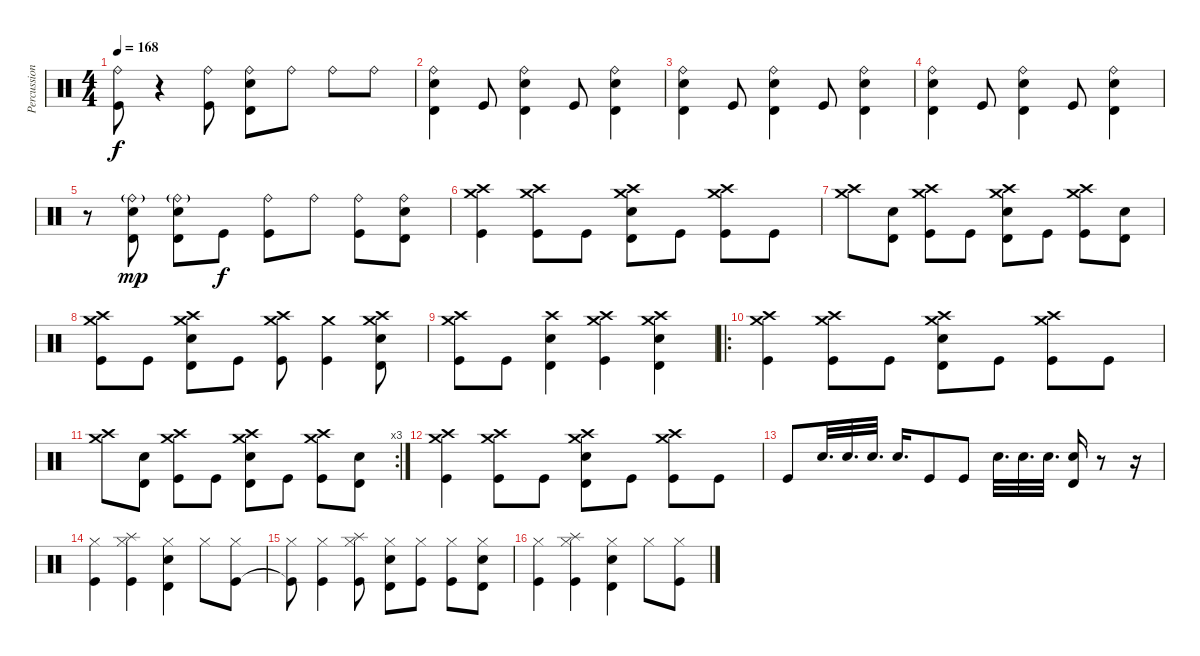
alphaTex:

\track ("Percussion" "Percussion") {instrument percussion}
\staff {score}
\articulation defaults
\ts (4 4)
\tempo 168
\clef neutral
\ks c
("Ride (bell)" "Kick (hit)").8{dy f} r.4 ("Ride (bell)" "Kick (hit)").8 ("Ride (bell)" "Timbale high (hit)" "Electric Snare (hit)").8 "Ride (bell)".8 "Ride (bell)".8 "Ride (bell)".8 |
("Ride (bell)" "Electric Snare (hit)" "Timbale high (hit)").4 "Kick (hit)".8 ("Ride (bell)" "Electric Snare (hit)" "Timbale high (hit)").4 "Kick (hit)".8 ("Ride (bell)" "Electric Snare (hit)" "Timbale high (hit)").4 |
("Ride (bell)" "Electric Snare (hit)" "Timbale high (hit)").4 "Kick (hit)".8 ("Ride (bell)" "Electric Snare (hit)" "Timbale high (hit)").4 "Kick (hit)".8 ("Ride (bell)" "Electric Snare (hit)" "Timbale high (hit)").4 |
("Ride (bell)" "Electric Snare (hit)" "Timbale high (hit)").4 "Kick (hit)".8 ("Ride (bell)" "Electric Snare (hit)" "Timbale high (hit)").4 "Kick (hit)".8 ("Ride (bell)" "Electric Snare (hit)" "Timbale high (hit)").4 |
r.8 ("Timbale high (hit)" "Electric Snare (hit)" "Ride (bell)"{g}).8{dy mp} ("Timbale high (hit)" "Electric Snare (hit)" "Ride (bell)"{g}).8 "Kick (hit)".8{dy f} ("Ride (bell)" "Kick (hit)").8 "Ride (bell)".8 ("Ride (bell)" "Kick (hit)").8 ("Ride (bell)" "Electric Snare (hit)" "Timbale high (hit)").8 |
("Crash high (hit)" "Crash medium (hit)" "Kick (hit)").4{volume 16} ("Crash high (hit)" "Crash medium (hit)" "Kick (hit)").8 "Kick (hit)".8 ("Timbale high (hit)" "Electric Snare (hit)" "Crash high (hit)" "Crash medium (hit)").8 "Kick (hit)".8 ("Crash high (hit)" "Crash medium (hit)" "Kick (hit)").8 "Kick (hit)".8 |
("Crash high (hit)" "Crash medium (hit)").8 ("Electric Snare (hit)" "Timbale high (hit)").8 ("Crash high (hit)" "Crash medium (hit)" "Kick (hit)").8 "Kick (hit)".8 ("Timbale high (hit)" "Electric Snare (hit)" "Crash medium (hit)" "Crash high (hit)").8 "Kick (hit)".8 ("Crash high (hit)" "Crash medium (hit)" "Kick (hit)").8 ("Electric Snare (hit)" "Timbale high (hit)").8 |
("Crash high (hit)" "Crash medium (hit)" "Kick (hit)").8 "Kick (hit)".8 ("Electric Snare (hit)" "Timbale high (hit)" "Crash high (hit)" "Crash medium (hit)").8 "Kick (hit)".8 ("Crash high (hit)" "Crash medium (hit)" "Kick (hit)").8 ("Crash medium (hit)" "Kick (hit)").4 ("Electric Snare (hit)" "Timbale high (hit)" "Crash medium (hit)" "Crash high (hit)").8 |
("Crash high (hit)" "Crash medium (hit)" "Kick (hit)").8 "Kick (hit)".8 ("Timbale high (hit)" "Electric Snare (hit)" "Crash high (hit)").4 ("Crash medium (hit)" "Crash high (hit)" "Kick (hit)").4 ("Crash high (hit)" "Crash medium (hit)" "Timbale high (hit)" "Electric Snare (hit)").4 |
\ro
("Crash high (hit)" "Crash medium (hit)" "Kick (hit)").4 ("Crash high (hit)" "Crash medium (hit)" "Kick (hit)").8 "Kick (hit)".8 ("Timbale high (hit)" "Electric Snare (hit)" "Crash high (hit)" "Crash medium (hit)").8 "Kick (hit)".8 ("Crash high (hit)" "Crash medium (hit)" "Kick (hit)").8 "Kick (hit)".8 |
\rc 3
("Crash high (hit)" "Crash medium (hit)").8 ("Electric Snare (hit)" "Timbale high (hit)").8 ("Crash high (hit)" "Crash medium (hit)" "Kick (hit)").8 "Kick (hit)".8 ("Timbale high (hit)" "Electric Snare (hit)" "Crash medium (hit)" "Crash high (hit)").8 "Kick (hit)".8 ("Crash high (hit)" "Crash medium (hit)" "Kick (hit)").8 ("Electric Snare (hit)" "Timbale high (hit)").8 |
("Crash high (hit)" "Crash medium (hit)" "Kick (hit)").4 ("Crash high (hit)" "Crash medium (hit)" "Kick (hit)").8 "Kick (hit)".8 ("Timbale high (hit)" "Electric Snare (hit)" "Crash high (hit)" "Crash medium (hit)").8 "Kick (hit)".8 ("Crash high (hit)" "Crash medium (hit)" "Kick (hit)").8 "Kick (hit)".8 |
"Kick (hit)".8{volume 13} "Electric Snare (hit)".32{d} "Electric Snare (hit)".32{d} "Electric Snare (hit)".32{d} "Electric Snare (hit)".16{d} "Kick (hit)".8 "Kick (hit)".8 "Electric Snare (hit)".32{d} "Electric Snare (hit)".32{d} "Electric Snare (hit)".32{d} ("Electric Snare (hit)" "Timbale high (hit)").16 r.8 r.16 |
("Hi-Hat (closed)" "Kick (hit)").4 ("Hi-Hat (closed)" "Splash (hit)" "Kick (hit)").4 ("Hi-Hat (closed)" "Timbale high (hit)" "Electric Snare (hit)").4 "Hi-Hat (closed)".8 ("Hi-Hat (closed)" "Kick (hit)").8 |
("Hi-Hat (closed)" "Kick (hit)"{t}).8 ("Hi-Hat (closed)" "Kick (hit)").4 ("Hi-Hat (closed)" "Splash (hit)" "Kick (hit)").8 ("Hi-Hat (closed)" "Timbale high (hit)" "Electric Snare (hit)").8 ("Hi-Hat (closed)" "Kick (hit)").8 ("Hi-Hat (closed)" "Kick (hit)").8 ("Hi-Hat (closed)" "Timbale high (hit)" "Electric Snare (hit)").8 |
("Hi-Hat (closed)" "Kick (hit)").4 ("Hi-Hat (closed)" "Splash (hit)" "Kick (hit)").4 ("Hi-Hat (closed)" "Timbale high (hit)" "Electric Snare (hit)").4 "Hi-Hat (closed)".8 ("Hi-Hat (closed)" "Kick (hit)").8
